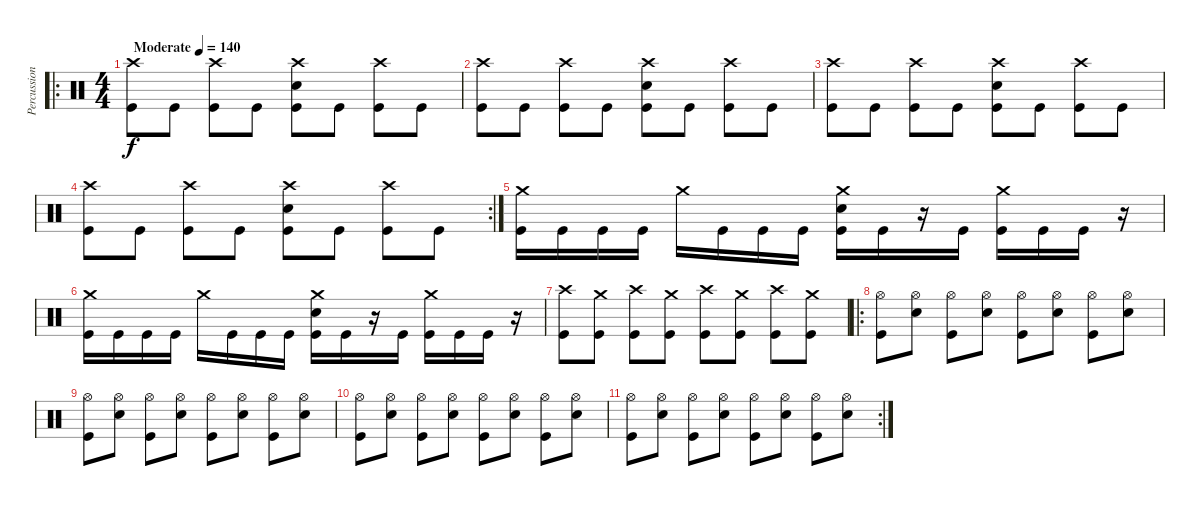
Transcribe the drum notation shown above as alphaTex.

\track ("Percussion" "Percussion") {instrument percussion}
\staff {score}
\articulation defaults
\ro
\ts (4 4)
\tempo (140 "Moderate")
\clef neutral
\ks c
("Crash high (hit)" "Kick (hit)").8{dy f} "Kick (hit)".8 ("Crash high (hit)" "Kick (hit)").8 "Kick (hit)".8 ("Crash high (hit)" "Snare (hit) 2" "Kick (hit)").8 "Kick (hit)".8 ("Crash high (hit)" "Kick (hit)").8 "Kick (hit)".8 |
("Crash high (hit)" "Kick (hit)").8 "Kick (hit)".8 ("Crash high (hit)" "Kick (hit)").8 "Kick (hit)".8 ("Crash high (hit)" "Snare (hit) 2" "Kick (hit)").8 "Kick (hit)".8 ("Crash high (hit)" "Kick (hit)").8 "Kick (hit)".8 |
("Crash high (hit)" "Kick (hit)").8 "Kick (hit)".8 ("Crash high (hit)" "Kick (hit)").8 "Kick (hit)".8 ("Crash high (hit)" "Snare (hit) 2" "Kick (hit)").8 "Kick (hit)".8 ("Crash high (hit)" "Kick (hit)").8 "Kick (hit)".8 |
\rc 2
("Crash high (hit)" "Kick (hit)").8 "Kick (hit)".8 ("Crash high (hit)" "Kick (hit)").8 "Kick (hit)".8 ("Crash high (hit)" "Snare (hit) 2" "Kick (hit)").8 "Kick (hit)".8 ("Crash high (hit)" "Kick (hit)").8 "Kick (hit)".8 |
("Crash medium (hit)" "Kick (hit)").16 "Kick (hit)".16 "Kick (hit)".16 "Kick (hit)".16 "Crash medium (hit)".16 "Kick (hit)".16 "Kick (hit)".16 "Kick (hit)".16 ("Crash medium (hit)" "Snare (hit) 2" "Kick (hit)").16 "Kick (hit)".16 r.16 "Kick (hit)".16 ("Crash medium (hit)" "Kick (hit)").16 "Kick (hit)".16 "Kick (hit)".16 r.16 |
("Crash medium (hit)" "Kick (hit)").16 "Kick (hit)".16 "Kick (hit)".16 "Kick (hit)".16 "Crash medium (hit)".16 "Kick (hit)".16 "Kick (hit)".16 "Kick (hit)".16 ("Crash medium (hit)" "Snare (hit) 2" "Kick (hit)").16 "Kick (hit)".16 r.16 "Kick (hit)".16 ("Crash medium (hit)" "Kick (hit)").16 "Kick (hit)".16 "Kick (hit)".16 r.16 |
("Crash high (hit)" "Kick (hit)").8 ("Crash medium (hit)" "Kick (hit)").8 ("Crash high (hit)" "Kick (hit)").8 ("Crash medium (hit)" "Kick (hit)").8 ("Crash high (hit)" "Kick (hit)").8 ("Crash medium (hit)" "Kick (hit)").8 ("Crash high (hit)" "Kick (hit)").8 ("Crash medium (hit)" "Kick (hit)").8 |
\ro
("Hi-Hat (open)" "Kick (hit)").8 ("Hi-Hat (open)" "Snare (hit) 2").8 ("Hi-Hat (open)" "Kick (hit)").8 ("Hi-Hat (open)" "Snare (hit) 2").8 ("Hi-Hat (open)" "Kick (hit)").8 ("Hi-Hat (open)" "Snare (hit) 2").8 ("Hi-Hat (open)" "Kick (hit)").8 ("Hi-Hat (open)" "Snare (hit) 2").8 |
("Hi-Hat (open)" "Kick (hit)").8 ("Hi-Hat (open)" "Snare (hit) 2").8 ("Hi-Hat (open)" "Kick (hit)").8 ("Hi-Hat (open)" "Snare (hit) 2").8 ("Hi-Hat (open)" "Kick (hit)").8 ("Hi-Hat (open)" "Snare (hit) 2").8 ("Hi-Hat (open)" "Kick (hit)").8 ("Hi-Hat (open)" "Snare (hit) 2").8 |
("Hi-Hat (open)" "Kick (hit)").8 ("Hi-Hat (open)" "Snare (hit) 2").8 ("Hi-Hat (open)" "Kick (hit)").8 ("Hi-Hat (open)" "Snare (hit) 2").8 ("Hi-Hat (open)" "Kick (hit)").8 ("Hi-Hat (open)" "Snare (hit) 2").8 ("Hi-Hat (open)" "Kick (hit)").8 ("Hi-Hat (open)" "Snare (hit) 2").8 |
\rc 2
("Hi-Hat (open)" "Kick (hit)").8 ("Hi-Hat (open)" "Snare (hit) 2").8 ("Hi-Hat (open)" "Kick (hit)").8 ("Hi-Hat (open)" "Snare (hit) 2").8 ("Hi-Hat (open)" "Kick (hit)").8 ("Hi-Hat (open)" "Snare (hit) 2").8 ("Hi-Hat (open)" "Kick (hit)").8 ("Hi-Hat (open)" "Snare (hit) 2").8
